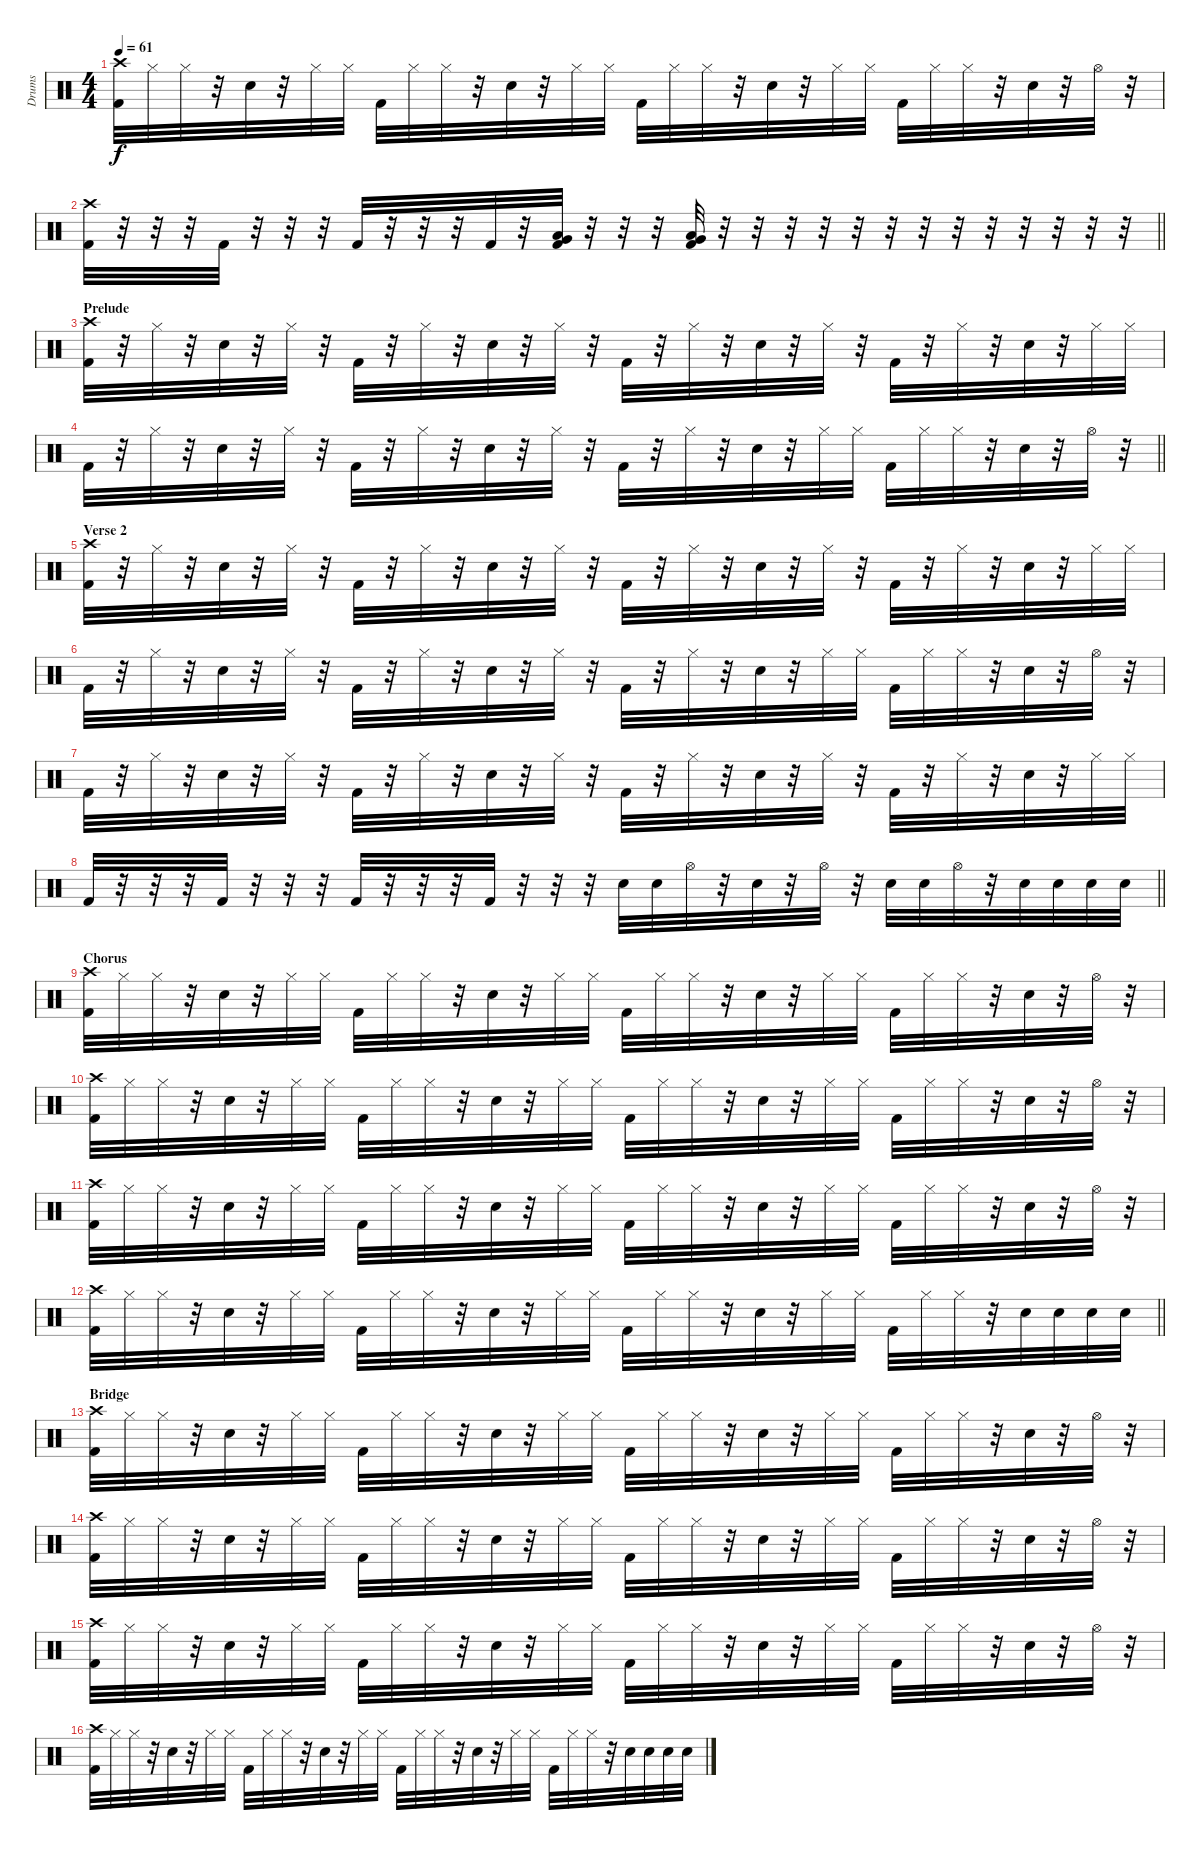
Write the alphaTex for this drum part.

\track ("Drums" "Drums") {instrument percussion}
\staff {score}
\articulation defaults
\ts (4 4)
\tempo 61
\clef neutral
\ks c
("Kick (hit) 2" "Crash high (hit)").32{dy f} "Hi-Hat (closed)".32 "Hi-Hat (closed)".32 r.32 "Snare (hit) 2".32 r.32 "Hi-Hat (closed)".32 "Hi-Hat (closed)".32 "Kick (hit) 2".32 "Hi-Hat (closed)".32 "Hi-Hat (closed)".32 r.32 "Snare (hit) 2".32 r.32 "Hi-Hat (closed)".32 "Hi-Hat (closed)".32 "Kick (hit) 2".32 "Hi-Hat (closed)".32 "Hi-Hat (closed)".32 r.32 "Snare (hit) 2".32 r.32 "Hi-Hat (closed)".32 "Hi-Hat (closed)".32 "Kick (hit) 2".32 "Hi-Hat (closed)".32 "Hi-Hat (closed)".32 r.32 "Snare (hit) 2".32 r.32 "Hi-Hat (open)".32 r.32 |
\barLineRight lightlight
("Crash high (hit)" "Kick (hit) 2").32 r.32 r.32 r.32 "Kick (hit) 2".32 r.32 r.32 r.32 "Kick (hit) 2".32 r.32 r.32 r.32 "Kick (hit) 2".32 r.32 ("Very Low Tom (hit)" "Low Tom (hit)" "Kick (hit) 2").32 r.32 r.32 r.32 ("Very Low Tom (hit)" "Low Tom (hit)" "Kick (hit) 2").32 r.32 r.32 r.32 r.32 r.32 r.32 r.32 r.32 r.32 r.32 r.32 r.32 r.32 |
\section ("" "Prelude")
("Kick (hit) 2" "Crash high (hit)").32 r.32 "Hi-Hat (closed)".32 r.32 "Snare (hit) 2".32 r.32 "Hi-Hat (closed)".32 r.32 "Kick (hit) 2".32 r.32 "Hi-Hat (closed)".32 r.32 "Snare (hit) 2".32 r.32 "Hi-Hat (closed)".32 r.32 "Kick (hit) 2".32 r.32 "Hi-Hat (closed)".32 r.32 "Snare (hit) 2".32 r.32 "Hi-Hat (closed)".32 r.32 "Kick (hit) 2".32 r.32 "Hi-Hat (closed)".32 r.32 "Snare (hit) 2".32 r.32 "Hi-Hat (closed)".32 "Hi-Hat (closed)".32 |
\barLineRight lightlight "Kick (hit) 2".32
r.32 "Hi-Hat (closed)".32 r.32 "Snare (hit) 2".32 r.32 "Hi-Hat (closed)".32 r.32 "Kick (hit) 2".32 r.32 "Hi-Hat (closed)".32 r.32 "Snare (hit) 2".32 r.32 "Hi-Hat (closed)".32 r.32 "Kick (hit) 2".32 r.32 "Hi-Hat (closed)".32 r.32 "Snare (hit) 2".32 r.32 "Hi-Hat (closed)".32 "Hi-Hat (closed)".32 "Kick (hit) 2".32 "Hi-Hat (closed)".32 "Hi-Hat (closed)".32 r.32 "Snare (hit) 2".32 r.32 "Hi-Hat (open)".32 r.32 |
\section ("" "Verse 2")
("Kick (hit) 2" "Crash high (hit)").32 r.32 "Hi-Hat (closed)".32 r.32 "Snare (hit) 2".32 r.32 "Hi-Hat (closed)".32 r.32 "Kick (hit) 2".32 r.32 "Hi-Hat (closed)".32 r.32 "Snare (hit) 2".32 r.32 "Hi-Hat (closed)".32 r.32 "Kick (hit) 2".32 r.32 "Hi-Hat (closed)".32 r.32 "Snare (hit) 2".32 r.32 "Hi-Hat (closed)".32 r.32 "Kick (hit) 2".32 r.32 "Hi-Hat (closed)".32 r.32 "Snare (hit) 2".32 r.32 "Hi-Hat (closed)".32 "Hi-Hat (closed)".32 |
"Kick (hit) 2".32 r.32 "Hi-Hat (closed)".32 r.32 "Snare (hit) 2".32 r.32 "Hi-Hat (closed)".32 r.32 "Kick (hit) 2".32 r.32 "Hi-Hat (closed)".32 r.32 "Snare (hit) 2".32 r.32 "Hi-Hat (closed)".32 r.32 "Kick (hit) 2".32 r.32 "Hi-Hat (closed)".32 r.32 "Snare (hit) 2".32 r.32 "Hi-Hat (closed)".32 "Hi-Hat (closed)".32 "Kick (hit) 2".32 "Hi-Hat (closed)".32 "Hi-Hat (closed)".32 r.32 "Snare (hit) 2".32 r.32 "Hi-Hat (open)".32 r.32 |
"Kick (hit) 2".32 r.32 "Hi-Hat (closed)".32 r.32 "Snare (hit) 2".32 r.32 "Hi-Hat (closed)".32 r.32 "Kick (hit) 2".32 r.32 "Hi-Hat (closed)".32 r.32 "Snare (hit) 2".32 r.32 "Hi-Hat (closed)".32 r.32 "Kick (hit) 2".32 r.32 "Hi-Hat (closed)".32 r.32 "Snare (hit) 2".32 r.32 "Hi-Hat (closed)".32 r.32 "Kick (hit) 2".32 r.32 "Hi-Hat (closed)".32 r.32 "Snare (hit) 2".32 r.32 "Hi-Hat (closed)".32 "Hi-Hat (closed)".32 |
\barLineRight lightlight "Kick (hit) 2".32
r.32 r.32 r.32 "Kick (hit) 2".32 r.32 r.32 r.32 "Kick (hit) 2".32 r.32 r.32 r.32 "Kick (hit) 2".32 r.32 r.32 r.32 "Snare (hit) 2".32 "Snare (hit) 2".32 "Hi-Hat (open)".32 r.32 "Snare (hit) 2".32 r.32 "Hi-Hat (open)".32 r.32 "Snare (hit) 2".32 "Snare (hit) 2".32 "Hi-Hat (open)".32 r.32 "Snare (hit) 2".32 "Snare (hit) 2".32 "Snare (hit) 2".32 "Snare (hit) 2".32 |
\section ("" "Chorus")
("Kick (hit) 2" "Crash high (hit)").32 "Hi-Hat (closed)".32 "Hi-Hat (closed)".32 r.32 "Snare (hit) 2".32 r.32 "Hi-Hat (closed)".32 "Hi-Hat (closed)".32 "Kick (hit) 2".32 "Hi-Hat (closed)".32 "Hi-Hat (closed)".32 r.32 "Snare (hit) 2".32 r.32 "Hi-Hat (closed)".32 "Hi-Hat (closed)".32 "Kick (hit) 2".32 "Hi-Hat (closed)".32 "Hi-Hat (closed)".32 r.32 "Snare (hit) 2".32 r.32 "Hi-Hat (closed)".32 "Hi-Hat (closed)".32 "Kick (hit) 2".32 "Hi-Hat (closed)".32 "Hi-Hat (closed)".32 r.32 "Snare (hit) 2".32 r.32 "Hi-Hat (open)".32 r.32 |
("Kick (hit) 2" "Crash high (hit)").32 "Hi-Hat (closed)".32 "Hi-Hat (closed)".32 r.32 "Snare (hit) 2".32 r.32 "Hi-Hat (closed)".32 "Hi-Hat (closed)".32 "Kick (hit) 2".32 "Hi-Hat (closed)".32 "Hi-Hat (closed)".32 r.32 "Snare (hit) 2".32 r.32 "Hi-Hat (closed)".32 "Hi-Hat (closed)".32 "Kick (hit) 2".32 "Hi-Hat (closed)".32 "Hi-Hat (closed)".32 r.32 "Snare (hit) 2".32 r.32 "Hi-Hat (closed)".32 "Hi-Hat (closed)".32 "Kick (hit) 2".32 "Hi-Hat (closed)".32 "Hi-Hat (closed)".32 r.32 "Snare (hit) 2".32 r.32 "Hi-Hat (open)".32 r.32 |
("Kick (hit) 2" "Crash high (hit)").32 "Hi-Hat (closed)".32 "Hi-Hat (closed)".32 r.32 "Snare (hit) 2".32 r.32 "Hi-Hat (closed)".32 "Hi-Hat (closed)".32 "Kick (hit) 2".32 "Hi-Hat (closed)".32 "Hi-Hat (closed)".32 r.32 "Snare (hit) 2".32 r.32 "Hi-Hat (closed)".32 "Hi-Hat (closed)".32 "Kick (hit) 2".32 "Hi-Hat (closed)".32 "Hi-Hat (closed)".32 r.32 "Snare (hit) 2".32 r.32 "Hi-Hat (closed)".32 "Hi-Hat (closed)".32 "Kick (hit) 2".32 "Hi-Hat (closed)".32 "Hi-Hat (closed)".32 r.32 "Snare (hit) 2".32 r.32 "Hi-Hat (open)".32 r.32 |
\barLineRight lightlight
("Kick (hit) 2" "Crash high (hit)").32 "Hi-Hat (closed)".32 "Hi-Hat (closed)".32 r.32 "Snare (hit) 2".32 r.32 "Hi-Hat (closed)".32 "Hi-Hat (closed)".32 "Kick (hit) 2".32 "Hi-Hat (closed)".32 "Hi-Hat (closed)".32 r.32 "Snare (hit) 2".32 r.32 "Hi-Hat (closed)".32 "Hi-Hat (closed)".32 "Kick (hit) 2".32 "Hi-Hat (closed)".32 "Hi-Hat (closed)".32 r.32 "Snare (hit) 2".32 r.32 "Hi-Hat (closed)".32 "Hi-Hat (closed)".32 "Kick (hit) 2".32 "Hi-Hat (closed)".32 "Hi-Hat (closed)".32 r.32 "Snare (hit) 2".32 "Snare (hit) 2".32 "Snare (hit) 2".32 "Snare (hit) 2".32 |
\section ("" "Bridge")
("Kick (hit) 2" "Crash high (hit)").32 "Hi-Hat (closed)".32 "Hi-Hat (closed)".32 r.32 "Snare (hit) 2".32 r.32 "Hi-Hat (closed)".32 "Hi-Hat (closed)".32 "Kick (hit) 2".32 "Hi-Hat (closed)".32 "Hi-Hat (closed)".32 r.32 "Snare (hit) 2".32 r.32 "Hi-Hat (closed)".32 "Hi-Hat (closed)".32 "Kick (hit) 2".32 "Hi-Hat (closed)".32 "Hi-Hat (closed)".32 r.32 "Snare (hit) 2".32 r.32 "Hi-Hat (closed)".32 "Hi-Hat (closed)".32 "Kick (hit) 2".32 "Hi-Hat (closed)".32 "Hi-Hat (closed)".32 r.32 "Snare (hit) 2".32 r.32 "Hi-Hat (open)".32 r.32 |
("Kick (hit) 2" "Crash high (hit)").32 "Hi-Hat (closed)".32 "Hi-Hat (closed)".32 r.32 "Snare (hit) 2".32 r.32 "Hi-Hat (closed)".32 "Hi-Hat (closed)".32 "Kick (hit) 2".32 "Hi-Hat (closed)".32 "Hi-Hat (closed)".32 r.32 "Snare (hit) 2".32 r.32 "Hi-Hat (closed)".32 "Hi-Hat (closed)".32 "Kick (hit) 2".32 "Hi-Hat (closed)".32 "Hi-Hat (closed)".32 r.32 "Snare (hit) 2".32 r.32 "Hi-Hat (closed)".32 "Hi-Hat (closed)".32 "Kick (hit) 2".32 "Hi-Hat (closed)".32 "Hi-Hat (closed)".32 r.32 "Snare (hit) 2".32 r.32 "Hi-Hat (open)".32 r.32 |
("Kick (hit) 2" "Crash high (hit)").32 "Hi-Hat (closed)".32 "Hi-Hat (closed)".32 r.32 "Snare (hit) 2".32 r.32 "Hi-Hat (closed)".32 "Hi-Hat (closed)".32 "Kick (hit) 2".32 "Hi-Hat (closed)".32 "Hi-Hat (closed)".32 r.32 "Snare (hit) 2".32 r.32 "Hi-Hat (closed)".32 "Hi-Hat (closed)".32 "Kick (hit) 2".32 "Hi-Hat (closed)".32 "Hi-Hat (closed)".32 r.32 "Snare (hit) 2".32 r.32 "Hi-Hat (closed)".32 "Hi-Hat (closed)".32 "Kick (hit) 2".32 "Hi-Hat (closed)".32 "Hi-Hat (closed)".32 r.32 "Snare (hit) 2".32 r.32 "Hi-Hat (open)".32 r.32 |
("Kick (hit) 2" "Crash high (hit)").32 "Hi-Hat (closed)".32 "Hi-Hat (closed)".32 r.32 "Snare (hit) 2".32 r.32 "Hi-Hat (closed)".32 "Hi-Hat (closed)".32 "Kick (hit) 2".32 "Hi-Hat (closed)".32 "Hi-Hat (closed)".32 r.32 "Snare (hit) 2".32 r.32 "Hi-Hat (closed)".32 "Hi-Hat (closed)".32 "Kick (hit) 2".32 "Hi-Hat (closed)".32 "Hi-Hat (closed)".32 r.32 "Snare (hit) 2".32 r.32 "Hi-Hat (closed)".32 "Hi-Hat (closed)".32 "Kick (hit) 2".32 "Hi-Hat (closed)".32 "Hi-Hat (closed)".32 r.32 "Snare (hit) 2".32 "Snare (hit) 2".32 "Snare (hit) 2".32 "Snare (hit) 2".32
